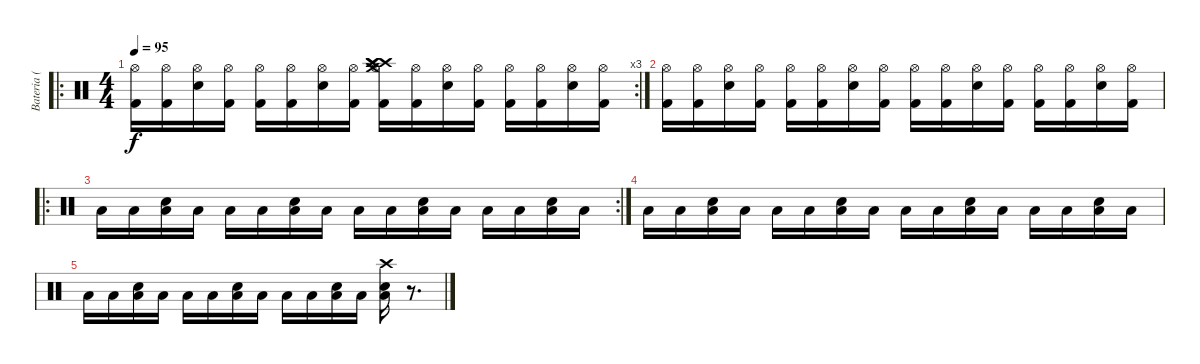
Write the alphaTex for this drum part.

\track ("Bateria ( Drums )" "Bateria ( ") {instrument percussion}
\staff {score}
\articulation defaults
\ro
\rc 3
\ts (4 4)
\tempo 95
\clef neutral
\ks c
("Hi-Hat (open)" "Kick (hit) 2").16{dy f} ("Hi-Hat (open)" "Kick (hit) 2").16 ("Hi-Hat (open)" "Snare (hit) 2").16 ("Hi-Hat (open)" "Kick (hit) 2").16 ("Hi-Hat (open)" "Kick (hit) 2").16 ("Hi-Hat (open)" "Kick (hit) 2").16 ("Hi-Hat (open)" "Snare (hit) 2").16 ("Hi-Hat (open)" "Kick (hit) 2").16 ("Hi-Hat (open)" "Kick (hit) 2" "Crash high (hit)" "Crash high (hit)" "Crash high (hit)" "Crash medium (hit)").16 ("Hi-Hat (open)" "Kick (hit) 2").16 ("Hi-Hat (open)" "Snare (hit) 2").16 ("Hi-Hat (open)" "Kick (hit) 2").16 ("Hi-Hat (open)" "Kick (hit) 2").16 ("Hi-Hat (open)" "Kick (hit) 2").16 ("Hi-Hat (open)" "Snare (hit) 2").16 ("Hi-Hat (open)" "Kick (hit) 2").16 |
("Hi-Hat (open)" "Kick (hit) 2").16 ("Hi-Hat (open)" "Kick (hit) 2").16 ("Hi-Hat (open)" "Snare (hit) 2").16 ("Hi-Hat (open)" "Kick (hit) 2").16 ("Hi-Hat (open)" "Kick (hit) 2").16 ("Hi-Hat (open)" "Kick (hit) 2").16 ("Hi-Hat (open)" "Snare (hit) 2").16 ("Hi-Hat (open)" "Kick (hit) 2").16 ("Hi-Hat (open)" "Kick (hit) 2").16 ("Hi-Hat (open)" "Kick (hit) 2").16 ("Hi-Hat (open)" "Snare (hit) 2").16 ("Hi-Hat (open)" "Kick (hit) 2").16 ("Hi-Hat (open)" "Kick (hit) 2").16 ("Hi-Hat (open)" "Kick (hit) 2").16 ("Hi-Hat (open)" "Snare (hit) 2").16 ("Hi-Hat (open)" "Kick (hit) 2").16 |
\ro
\rc 2 "Low Floor Tom (hit)".16 "Low Floor Tom (hit)".16
("Low Floor Tom (hit)" "Snare (hit) 2").16 "Low Floor Tom (hit)".16 "Low Floor Tom (hit)".16 "Low Floor Tom (hit)".16 ("Low Floor Tom (hit)" "Snare (hit) 2").16 "Low Floor Tom (hit)".16 "Low Floor Tom (hit)".16 "Low Floor Tom (hit)".16 ("Low Floor Tom (hit)" "Snare (hit) 2").16 "Low Floor Tom (hit)".16 "Low Floor Tom (hit)".16 "Low Floor Tom (hit)".16 ("Low Floor Tom (hit)" "Snare (hit) 2").16 "Low Floor Tom (hit)".16 |
"Low Floor Tom (hit)".16 "Low Floor Tom (hit)".16 ("Low Floor Tom (hit)" "Snare (hit) 2").16 "Low Floor Tom (hit)".16 "Low Floor Tom (hit)".16 "Low Floor Tom (hit)".16 ("Low Floor Tom (hit)" "Snare (hit) 2").16 "Low Floor Tom (hit)".16 "Low Floor Tom (hit)".16 "Low Floor Tom (hit)".16 ("Low Floor Tom (hit)" "Snare (hit) 2").16 "Low Floor Tom (hit)".16 "Low Floor Tom (hit)".16 "Low Floor Tom (hit)".16 ("Low Floor Tom (hit)" "Snare (hit) 2").16 "Low Floor Tom (hit)".16 |
"Low Floor Tom (hit)".16 "Low Floor Tom (hit)".16 ("Low Floor Tom (hit)" "Snare (hit) 2").16 "Low Floor Tom (hit)".16 "Low Floor Tom (hit)".16 "Low Floor Tom (hit)".16 ("Low Floor Tom (hit)" "Snare (hit) 2").16 "Low Floor Tom (hit)".16 "Low Floor Tom (hit)".16 "Low Floor Tom (hit)".16 ("Low Floor Tom (hit)" "Snare (hit) 2").16 "Low Floor Tom (hit)".16 ("Crash high (hit)" "Snare (hit) 2" "Low Floor Tom (hit)").16 r.8{d}
